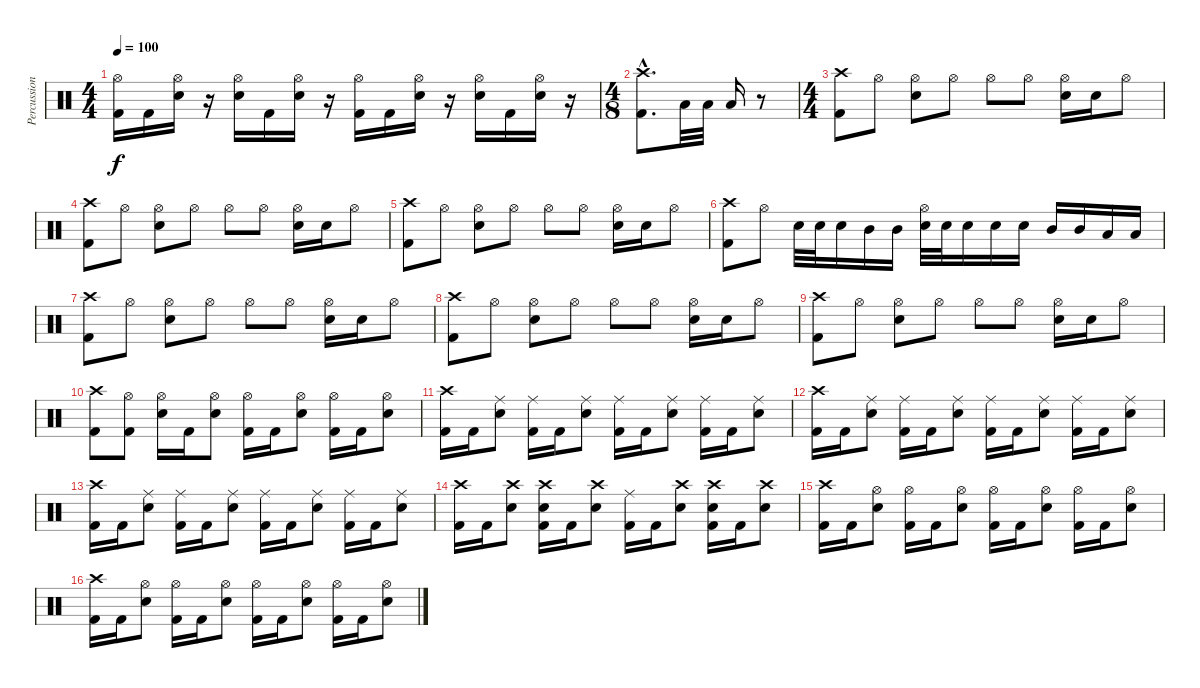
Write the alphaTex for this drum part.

\track ("Percussion" "Percussion") {instrument percussion}
\staff {score}
\articulation defaults
\ts (4 4)
\tempo 100
\clef neutral
\ks c
("Hi-Hat (open)" "Kick (hit) 2").16{dy f} "Kick (hit) 2".16 ("Hi-Hat (open)" "Snare (hit) 2").16 r.16 ("Hi-Hat (open)" "Snare (hit) 2").16 "Kick (hit) 2".16 ("Hi-Hat (open)" "Snare (hit) 2").16 r.16 ("Hi-Hat (open)" "Kick (hit) 2").16 "Kick (hit) 2".16 ("Hi-Hat (open)" "Snare (hit) 2").16 r.16 ("Hi-Hat (open)" "Snare (hit) 2").16 "Kick (hit) 2".16 ("Hi-Hat (open)" "Snare (hit) 2").16 r.16 |
\ts (4 8)
("Crash high (hit)"{hac} "Kick (hit) 2"{hac}).8{d} "Low Floor Tom (hit)".32 "Low Floor Tom (hit)".32 "Low Floor Tom (hit)".16 r.8 |
\ts (4 4)
("Crash high (hit)" "Kick (hit) 2").8 "Hi-Hat (open)".8 ("Hi-Hat (open)" "Snare (hit) 2").8 "Hi-Hat (open)".8 "Hi-Hat (open)".8 "Hi-Hat (open)".8 ("Hi-Hat (open)" "Snare (hit) 2").16 "Snare (hit) 2".16 "Hi-Hat (open)".8 |
("Crash high (hit)" "Kick (hit) 2").8 "Hi-Hat (open)".8 ("Hi-Hat (open)" "Snare (hit) 2").8 "Hi-Hat (open)".8 "Hi-Hat (open)".8 "Hi-Hat (open)".8 ("Hi-Hat (open)" "Snare (hit) 2").16 "Snare (hit) 2".16 "Hi-Hat (open)".8 |
("Crash high (hit)" "Kick (hit) 2").8 "Hi-Hat (open)".8 ("Hi-Hat (open)" "Snare (hit) 2").8 "Hi-Hat (open)".8 "Hi-Hat (open)".8 "Hi-Hat (open)".8 ("Hi-Hat (open)" "Snare (hit) 2").16 "Snare (hit) 2".16 "Hi-Hat (open)".8 |
("Crash high (hit)" "Kick (hit) 2").8 "Hi-Hat (open)".8 "Snare (hit) 2".32 "Snare (hit) 2".32 "Snare (hit) 2".16 "Mid Tom (hit)".16 "Mid Tom (hit)".16 ("Hi-Hat (open)" "Snare (hit) 2").32 "Snare (hit) 2".32 "Snare (hit) 2".16 "Snare (hit) 2".16 "Snare (hit) 2".16 "Mid Tom (hit)".16 "Mid Tom (hit)".16 "Low Floor Tom (hit)".16 "Low Floor Tom (hit)".16 |
("Crash high (hit)" "Kick (hit) 2").8 "Hi-Hat (open)".8 ("Hi-Hat (open)" "Snare (hit) 2").8 "Hi-Hat (open)".8 "Hi-Hat (open)".8 "Hi-Hat (open)".8 ("Hi-Hat (open)" "Snare (hit) 2").16 "Snare (hit) 2".16 "Hi-Hat (open)".8 |
("Crash high (hit)" "Kick (hit) 2").8 "Hi-Hat (open)".8 ("Hi-Hat (open)" "Snare (hit) 2").8 "Hi-Hat (open)".8 "Hi-Hat (open)".8 "Hi-Hat (open)".8 ("Hi-Hat (open)" "Snare (hit) 2").16 "Snare (hit) 2".16 "Hi-Hat (open)".8 |
("Crash high (hit)" "Kick (hit) 2").8 "Hi-Hat (open)".8 ("Hi-Hat (open)" "Snare (hit) 2").8 "Hi-Hat (open)".8 "Hi-Hat (open)".8 "Hi-Hat (open)".8 ("Hi-Hat (open)" "Snare (hit) 2").16 "Snare (hit) 2".16 "Hi-Hat (open)".8 |
("Crash high (hit)" "Kick (hit) 2").8 ("Hi-Hat (open)" "Kick (hit) 2").8 ("Hi-Hat (open)" "Snare (hit) 2").16 "Kick (hit) 2".16 ("Hi-Hat (open)" "Snare (hit) 2").8 ("Hi-Hat (open)" "Kick (hit) 2").16 "Kick (hit) 2".16 ("Hi-Hat (open)" "Snare (hit) 2").8 ("Hi-Hat (open)" "Kick (hit) 2").16 "Kick (hit) 2".16 ("Hi-Hat (open)" "Snare (hit) 2").8 |
("Crash high (hit)" "Kick (hit) 2").16 "Kick (hit) 2".16 ("Ride (middle)" "Snare (hit) 2").8 ("Ride (middle)" "Kick (hit) 2").16 "Kick (hit) 2".16 ("Ride (middle)" "Snare (hit) 2").8 ("Ride (middle)" "Kick (hit) 2").16 "Kick (hit) 2".16 ("Ride (middle)" "Snare (hit) 2").8 ("Ride (middle)" "Kick (hit) 2").16 "Kick (hit) 2".16 ("Ride (middle)" "Snare (hit) 2").8 |
("Crash high (hit)" "Kick (hit) 2").16 "Kick (hit) 2".16 ("Ride (middle)" "Snare (hit) 2").8 ("Ride (middle)" "Kick (hit) 2").16 "Kick (hit) 2".16 ("Ride (middle)" "Snare (hit) 2").8 ("Ride (middle)" "Kick (hit) 2").16 "Kick (hit) 2".16 ("Ride (middle)" "Snare (hit) 2").8 ("Ride (middle)" "Kick (hit) 2").16 "Kick (hit) 2".16 ("Ride (middle)" "Snare (hit) 2").8 |
("Crash high (hit)" "Kick (hit) 2").16 "Kick (hit) 2".16 ("Ride (middle)" "Snare (hit) 2").8 ("Ride (middle)" "Kick (hit) 2").16 "Kick (hit) 2".16 ("Ride (middle)" "Snare (hit) 2").8 ("Ride (middle)" "Kick (hit) 2").16 "Kick (hit) 2".16 ("Ride (middle)" "Snare (hit) 2").8 ("Ride (middle)" "Kick (hit) 2").16 "Kick (hit) 2".16 ("Ride (middle)" "Snare (hit) 2").8 |
("Crash high (hit)" "Kick (hit) 2").16 "Kick (hit) 2".16 ("Crash high (hit)" "Snare (hit) 2").8 ("Crash high (hit)" "Snare (hit) 2" "Kick (hit) 2").16 "Kick (hit) 2".16 ("Crash high (hit)" "Snare (hit) 2").8 ("Ride (middle)" "Kick (hit) 2").16 "Kick (hit) 2".16 ("Crash high (hit)" "Snare (hit) 2").8 ("Crash high (hit)" "Snare (hit) 2" "Kick (hit) 2").16 "Kick (hit) 2".16 ("Crash high (hit)" "Snare (hit) 2").8 |
("Crash high (hit)" "Kick (hit) 2").16 "Kick (hit) 2".16 ("Hi-Hat (open)" "Snare (hit) 2").8 ("Hi-Hat (open)" "Kick (hit) 2").16 "Kick (hit) 2".16 ("Hi-Hat (open)" "Snare (hit) 2").8 ("Hi-Hat (open)" "Kick (hit) 2").16 "Kick (hit) 2".16 ("Hi-Hat (open)" "Snare (hit) 2").8 ("Hi-Hat (open)" "Kick (hit) 2").16 "Kick (hit) 2".16 ("Hi-Hat (open)" "Snare (hit) 2").8 |
("Crash high (hit)" "Kick (hit) 2").16 "Kick (hit) 2".16 ("Hi-Hat (open)" "Snare (hit) 2").8 ("Hi-Hat (open)" "Kick (hit) 2").16 "Kick (hit) 2".16 ("Hi-Hat (open)" "Snare (hit) 2").8 ("Hi-Hat (open)" "Kick (hit) 2").16 "Kick (hit) 2".16 ("Hi-Hat (open)" "Snare (hit) 2").8 ("Hi-Hat (open)" "Kick (hit) 2").16 "Kick (hit) 2".16 ("Hi-Hat (open)" "Snare (hit) 2").8
